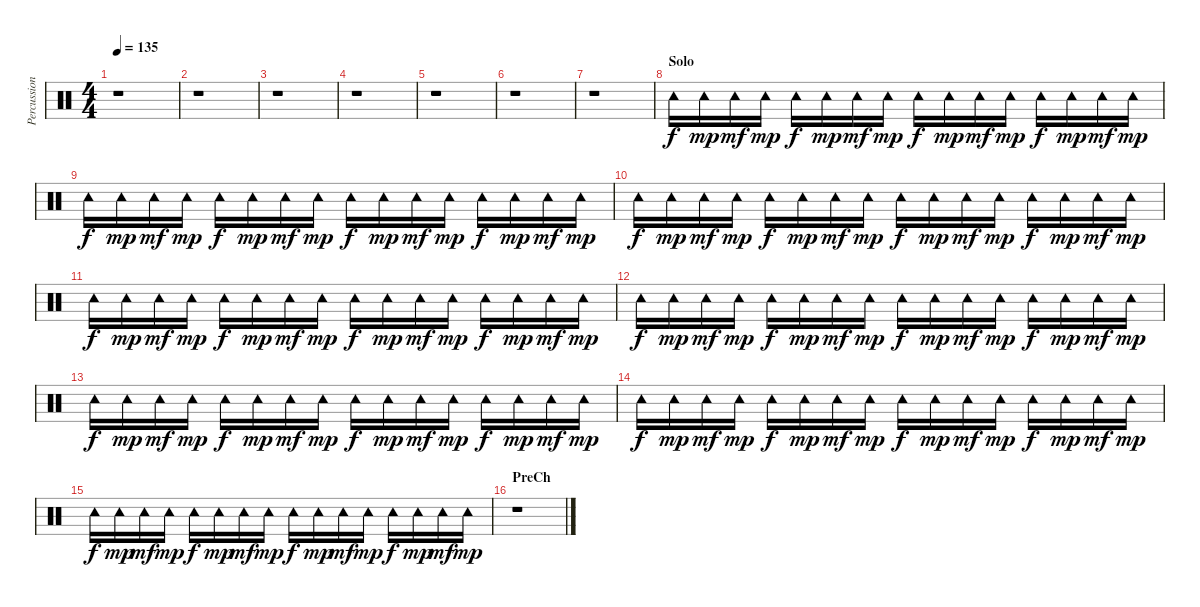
\track ("Percussion" "Percussion") {instrument percussion}
\staff {score}
\articulation defaults
\ts (4 4)
\tempo 135
\clef neutral
\ks c
r.1{dy f} |
r.1 |
r.1 |
r.1 |
r.1 |
r.1 |
r.1 |
\section ("" "Solo")
"Tambourine (hit)".16 "Tambourine (hit)".16{dy mp} "Tambourine (hit)".16{dy mf} "Tambourine (hit)".16{dy mp} "Tambourine (hit)".16{dy f} "Tambourine (hit)".16{dy mp} "Tambourine (hit)".16{dy mf} "Tambourine (hit)".16{dy mp} "Tambourine (hit)".16{dy f} "Tambourine (hit)".16{dy mp} "Tambourine (hit)".16{dy mf} "Tambourine (hit)".16{dy mp} "Tambourine (hit)".16{dy f} "Tambourine (hit)".16{dy mp} "Tambourine (hit)".16{dy mf} "Tambourine (hit)".16{dy mp} |
"Tambourine (hit)".16{dy f} "Tambourine (hit)".16{dy mp} "Tambourine (hit)".16{dy mf} "Tambourine (hit)".16{dy mp} "Tambourine (hit)".16{dy f} "Tambourine (hit)".16{dy mp} "Tambourine (hit)".16{dy mf} "Tambourine (hit)".16{dy mp} "Tambourine (hit)".16{dy f} "Tambourine (hit)".16{dy mp} "Tambourine (hit)".16{dy mf} "Tambourine (hit)".16{dy mp} "Tambourine (hit)".16{dy f} "Tambourine (hit)".16{dy mp} "Tambourine (hit)".16{dy mf} "Tambourine (hit)".16{dy mp} |
"Tambourine (hit)".16{dy f} "Tambourine (hit)".16{dy mp} "Tambourine (hit)".16{dy mf} "Tambourine (hit)".16{dy mp} "Tambourine (hit)".16{dy f} "Tambourine (hit)".16{dy mp} "Tambourine (hit)".16{dy mf} "Tambourine (hit)".16{dy mp} "Tambourine (hit)".16{dy f} "Tambourine (hit)".16{dy mp} "Tambourine (hit)".16{dy mf} "Tambourine (hit)".16{dy mp} "Tambourine (hit)".16{dy f} "Tambourine (hit)".16{dy mp} "Tambourine (hit)".16{dy mf} "Tambourine (hit)".16{dy mp} |
"Tambourine (hit)".16{dy f} "Tambourine (hit)".16{dy mp} "Tambourine (hit)".16{dy mf} "Tambourine (hit)".16{dy mp} "Tambourine (hit)".16{dy f} "Tambourine (hit)".16{dy mp} "Tambourine (hit)".16{dy mf} "Tambourine (hit)".16{dy mp} "Tambourine (hit)".16{dy f} "Tambourine (hit)".16{dy mp} "Tambourine (hit)".16{dy mf} "Tambourine (hit)".16{dy mp} "Tambourine (hit)".16{dy f} "Tambourine (hit)".16{dy mp} "Tambourine (hit)".16{dy mf} "Tambourine (hit)".16{dy mp} |
"Tambourine (hit)".16{dy f} "Tambourine (hit)".16{dy mp} "Tambourine (hit)".16{dy mf} "Tambourine (hit)".16{dy mp} "Tambourine (hit)".16{dy f} "Tambourine (hit)".16{dy mp} "Tambourine (hit)".16{dy mf} "Tambourine (hit)".16{dy mp} "Tambourine (hit)".16{dy f} "Tambourine (hit)".16{dy mp} "Tambourine (hit)".16{dy mf} "Tambourine (hit)".16{dy mp} "Tambourine (hit)".16{dy f} "Tambourine (hit)".16{dy mp} "Tambourine (hit)".16{dy mf} "Tambourine (hit)".16{dy mp} |
"Tambourine (hit)".16{dy f} "Tambourine (hit)".16{dy mp} "Tambourine (hit)".16{dy mf} "Tambourine (hit)".16{dy mp} "Tambourine (hit)".16{dy f} "Tambourine (hit)".16{dy mp} "Tambourine (hit)".16{dy mf} "Tambourine (hit)".16{dy mp} "Tambourine (hit)".16{dy f} "Tambourine (hit)".16{dy mp} "Tambourine (hit)".16{dy mf} "Tambourine (hit)".16{dy mp} "Tambourine (hit)".16{dy f} "Tambourine (hit)".16{dy mp} "Tambourine (hit)".16{dy mf} "Tambourine (hit)".16{dy mp} |
"Tambourine (hit)".16{dy f} "Tambourine (hit)".16{dy mp} "Tambourine (hit)".16{dy mf} "Tambourine (hit)".16{dy mp} "Tambourine (hit)".16{dy f} "Tambourine (hit)".16{dy mp} "Tambourine (hit)".16{dy mf} "Tambourine (hit)".16{dy mp} "Tambourine (hit)".16{dy f} "Tambourine (hit)".16{dy mp} "Tambourine (hit)".16{dy mf} "Tambourine (hit)".16{dy mp} "Tambourine (hit)".16{dy f} "Tambourine (hit)".16{dy mp} "Tambourine (hit)".16{dy mf} "Tambourine (hit)".16{dy mp} |
"Tambourine (hit)".16{dy f} "Tambourine (hit)".16{dy mp} "Tambourine (hit)".16{dy mf} "Tambourine (hit)".16{dy mp} "Tambourine (hit)".16{dy f} "Tambourine (hit)".16{dy mp} "Tambourine (hit)".16{dy mf} "Tambourine (hit)".16{dy mp} "Tambourine (hit)".16{dy f} "Tambourine (hit)".16{dy mp} "Tambourine (hit)".16{dy mf} "Tambourine (hit)".16{dy mp} "Tambourine (hit)".16{dy f} "Tambourine (hit)".16{dy mp} "Tambourine (hit)".16{dy mf} "Tambourine (hit)".16{dy mp} |
\section ("" "PreCh")
r.1
